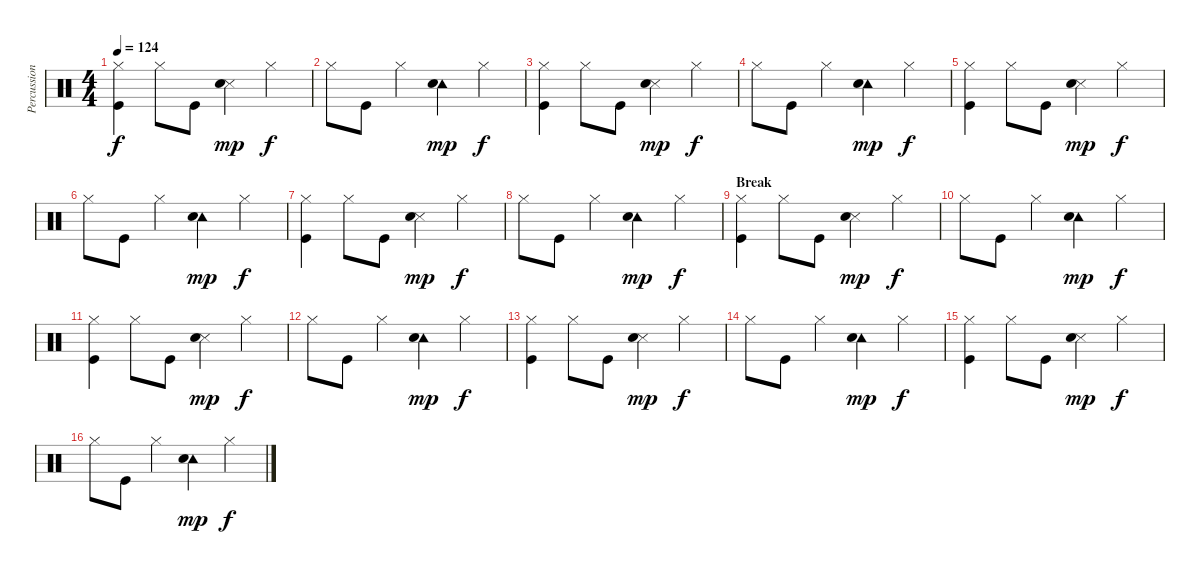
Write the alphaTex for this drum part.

\track ("Percussion" "Percussion") {instrument percussion}
\staff {score}
\articulation defaults
\ts (4 4)
\tempo 124
\clef neutral
\ks c
("Hi-Hat (closed)" "Kick (hit)").4{dy f} "Hi-Hat (closed)".8 "Kick (hit)".8 ("Snare (side stick) 3" "Snare (hit) 2").4{dy mp} "Hi-Hat (closed)".4{dy f} |
"Hi-Hat (closed)".8 "Kick (hit)".8 "Hi-Hat (closed)".4 ("Tambourine (hit)" "Snare (hit) 2").4{dy mp} "Hi-Hat (closed)".4{dy f} |
("Hi-Hat (closed)" "Kick (hit)").4 "Hi-Hat (closed)".8 "Kick (hit)".8 ("Snare (side stick) 3" "Snare (hit) 2").4{dy mp} "Hi-Hat (closed)".4{dy f} |
"Hi-Hat (closed)".8 "Kick (hit)".8 "Hi-Hat (closed)".4 ("Tambourine (hit)" "Snare (hit) 2").4{dy mp} "Hi-Hat (closed)".4{dy f} |
("Hi-Hat (closed)" "Kick (hit)").4 "Hi-Hat (closed)".8 "Kick (hit)".8 ("Snare (side stick) 3" "Snare (hit) 2").4{dy mp} "Hi-Hat (closed)".4{dy f} |
"Hi-Hat (closed)".8 "Kick (hit)".8 "Hi-Hat (closed)".4 ("Tambourine (hit)" "Snare (hit) 2").4{dy mp} "Hi-Hat (closed)".4{dy f} |
("Hi-Hat (closed)" "Kick (hit)").4 "Hi-Hat (closed)".8 "Kick (hit)".8 ("Snare (side stick) 3" "Snare (hit) 2").4{dy mp} "Hi-Hat (closed)".4{dy f} |
"Hi-Hat (closed)".8 "Kick (hit)".8 "Hi-Hat (closed)".4 ("Tambourine (hit)" "Snare (hit) 2").4{dy mp} "Hi-Hat (closed)".4{dy f} |
\section ("" "Break")
("Hi-Hat (closed)" "Kick (hit)").4 "Hi-Hat (closed)".8 "Kick (hit)".8 ("Snare (side stick) 3" "Snare (hit) 2").4{dy mp} "Hi-Hat (closed)".4{dy f} |
"Hi-Hat (closed)".8 "Kick (hit)".8 "Hi-Hat (closed)".4 ("Tambourine (hit)" "Snare (hit) 2").4{dy mp} "Hi-Hat (closed)".4{dy f} |
("Hi-Hat (closed)" "Kick (hit)").4 "Hi-Hat (closed)".8 "Kick (hit)".8 ("Snare (side stick) 3" "Snare (hit) 2").4{dy mp} "Hi-Hat (closed)".4{dy f} |
"Hi-Hat (closed)".8 "Kick (hit)".8 "Hi-Hat (closed)".4 ("Tambourine (hit)" "Snare (hit) 2").4{dy mp} "Hi-Hat (closed)".4{dy f} |
("Hi-Hat (closed)" "Kick (hit)").4 "Hi-Hat (closed)".8 "Kick (hit)".8 ("Snare (side stick) 3" "Snare (hit) 2").4{dy mp} "Hi-Hat (closed)".4{dy f} |
"Hi-Hat (closed)".8 "Kick (hit)".8 "Hi-Hat (closed)".4 ("Tambourine (hit)" "Snare (hit) 2").4{dy mp} "Hi-Hat (closed)".4{dy f} |
("Hi-Hat (closed)" "Kick (hit)").4 "Hi-Hat (closed)".8 "Kick (hit)".8 ("Snare (side stick) 3" "Snare (hit) 2").4{dy mp} "Hi-Hat (closed)".4{dy f} |
"Hi-Hat (closed)".8 "Kick (hit)".8 "Hi-Hat (closed)".4 ("Tambourine (hit)" "Snare (hit) 2").4{dy mp} "Hi-Hat (closed)".4{dy f}
